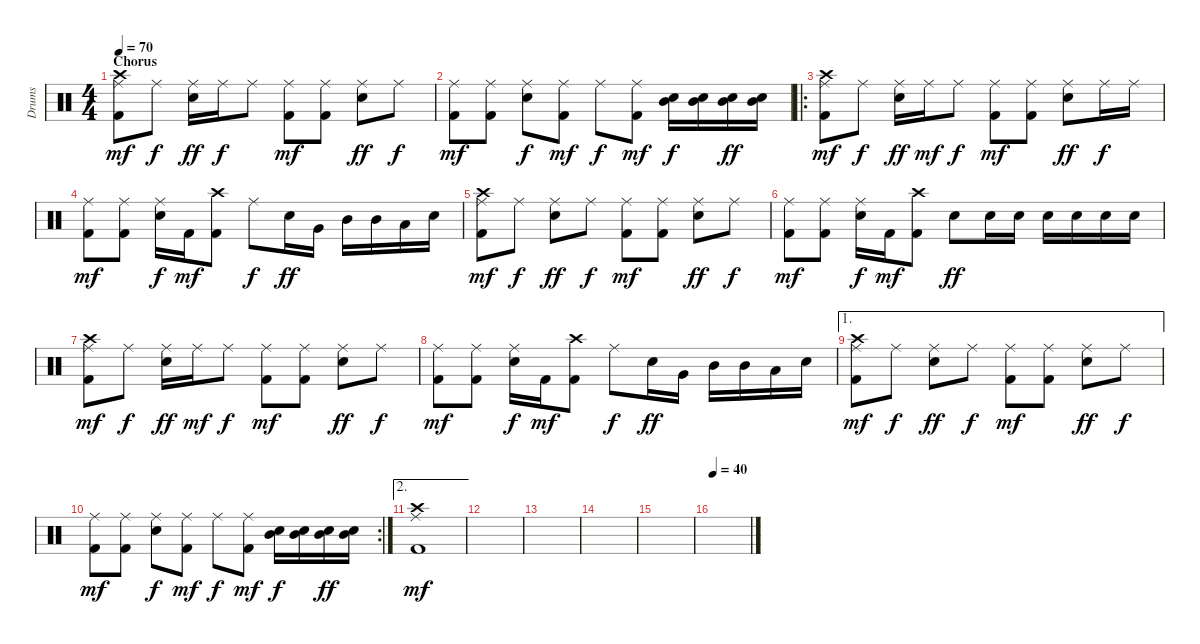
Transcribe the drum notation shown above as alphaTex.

\track ("Drums" "Drums") {instrument percussion}
\staff {score}
\articulation defaults
\ts (4 4)
\section ("" "Chorus")
\tempo 70
\clef neutral
\ks c
("Ride (middle)" "Crash high (hit)" "Kick (hit) 2").8{dy mf} "Ride (middle)".8{dy f} ("Ride (middle)" "Electric Snare (hit)").16{dy ff} "Ride (middle)".16{dy f} "Ride (middle)".8 ("Ride (middle)" "Kick (hit) 2").8{dy mf} ("Ride (middle)" "Kick (hit) 2").8 ("Ride (middle)" "Electric Snare (hit)").8{dy ff} "Ride (middle)".8{dy f} |
("Ride (middle)" "Kick (hit) 2").8{dy mf} ("Ride (middle)" "Kick (hit) 2").8 ("Ride (middle)" "Electric Snare (hit)").8{dy f} ("Ride (middle)" "Kick (hit) 2").8{dy mf} "Ride (middle)".8{dy f} ("Ride (middle)" "Kick (hit) 2").8{dy mf} ("Electric Snare (hit)" "Mid Tom (hit)").16{dy f} ("Electric Snare (hit)" "Mid Tom (hit)").16 ("Electric Snare (hit)" "Mid Tom (hit)").16{dy ff} ("Electric Snare (hit)" "Mid Tom (hit)").16 |
\ro
("Ride (middle)" "Crash high (hit)" "Kick (hit) 2").8{dy mf} "Ride (middle)".8{dy f} ("Ride (middle)" "Electric Snare (hit)").16{dy ff} "Ride (middle)".16{dy mf} "Ride (middle)".8{dy f} ("Ride (middle)" "Kick (hit) 2").8{dy mf} ("Ride (middle)" "Kick (hit) 2").8 ("Ride (middle)" "Electric Snare (hit)").8{dy ff} "Ride (middle)".16{dy f} "Ride (middle)".16 |
("Ride (middle)" "Kick (hit) 2").8{dy mf} ("Ride (middle)" "Kick (hit) 2").8 ("Ride (middle)" "Electric Snare (hit)").16{dy f} "Kick (hit) 2".16{dy mf} ("Crash high (hit)" "Kick (hit) 2").8 "Ride (middle)".8{dy f} "Electric Snare (hit)".16{dy ff} "Very Low Tom (hit)".16 "Mid Tom (hit)".16 "Mid Tom (hit)".16 "Low Tom (hit)".16 "Electric Snare (hit)".16 |
("Ride (middle)" "Crash high (hit)" "Kick (hit) 2").8{dy mf} "Ride (middle)".8{dy f} ("Ride (middle)" "Electric Snare (hit)").8{dy ff} "Ride (middle)".8{dy f} ("Ride (middle)" "Kick (hit) 2").8{dy mf} ("Ride (middle)" "Kick (hit) 2").8 ("Ride (middle)" "Electric Snare (hit)").8{dy ff} "Ride (middle)".8{dy f} |
("Ride (middle)" "Kick (hit) 2").8{dy mf} ("Ride (middle)" "Kick (hit) 2").8 ("Ride (middle)" "Electric Snare (hit)").16{dy f} "Kick (hit) 2".16{dy mf} ("Crash high (hit)" "Kick (hit) 2").8 "Electric Snare (hit)".8{dy ff} "Electric Snare (hit)".16 "Electric Snare (hit)".16 "Electric Snare (hit)".16 "Electric Snare (hit)".16 "Electric Snare (hit)".16 "Electric Snare (hit)".16 |
("Ride (middle)" "Crash high (hit)" "Kick (hit) 2").8{dy mf} "Ride (middle)".8{dy f} ("Ride (middle)" "Electric Snare (hit)").16{dy ff} "Ride (middle)".16{dy mf} "Ride (middle)".8{dy f} ("Ride (middle)" "Kick (hit) 2").8{dy mf} ("Ride (middle)" "Kick (hit) 2").8 ("Ride (middle)" "Electric Snare (hit)").8{dy ff} "Ride (middle)".8{dy f} |
("Ride (middle)" "Kick (hit) 2").8{dy mf} ("Ride (middle)" "Kick (hit) 2").8 ("Ride (middle)" "Electric Snare (hit)").16{dy f} "Kick (hit) 2".16{dy mf} ("Crash high (hit)" "Kick (hit) 2").8 "Ride (middle)".8{dy f} "Electric Snare (hit)".16{dy ff} "Very Low Tom (hit)".16 "Mid Tom (hit)".16 "Mid Tom (hit)".16 "Low Tom (hit)".16 "Electric Snare (hit)".16 |
\ae 1
("Ride (middle)" "Crash high (hit)" "Kick (hit) 2").8{dy mf} "Ride (middle)".8{dy f} ("Ride (middle)" "Electric Snare (hit)").8{dy ff} "Ride (middle)".8{dy f} ("Ride (middle)" "Kick (hit) 2").8{dy mf} ("Ride (middle)" "Kick (hit) 2").8 ("Ride (middle)" "Electric Snare (hit)").8{dy ff} "Ride (middle)".8{dy f} |
\rc 2
("Ride (middle)" "Kick (hit) 2").8{dy mf} ("Ride (middle)" "Kick (hit) 2").8 ("Ride (middle)" "Electric Snare (hit)").8{dy f} ("Ride (middle)" "Kick (hit) 2").8{dy mf} "Ride (middle)".8{dy f} ("Ride (middle)" "Kick (hit) 2").8{dy mf} ("Electric Snare (hit)" "Mid Tom (hit)").16{dy f} ("Electric Snare (hit)" "Mid Tom (hit)").16 ("Electric Snare (hit)" "Mid Tom (hit)").16{dy ff} ("Electric Snare (hit)" "Mid Tom (hit)").16 |
\ae 2
("Ride (middle)" "Crash high (hit)" "Kick (hit) 2").1{dy mf} |
|
|
|
|
\tempo 40
